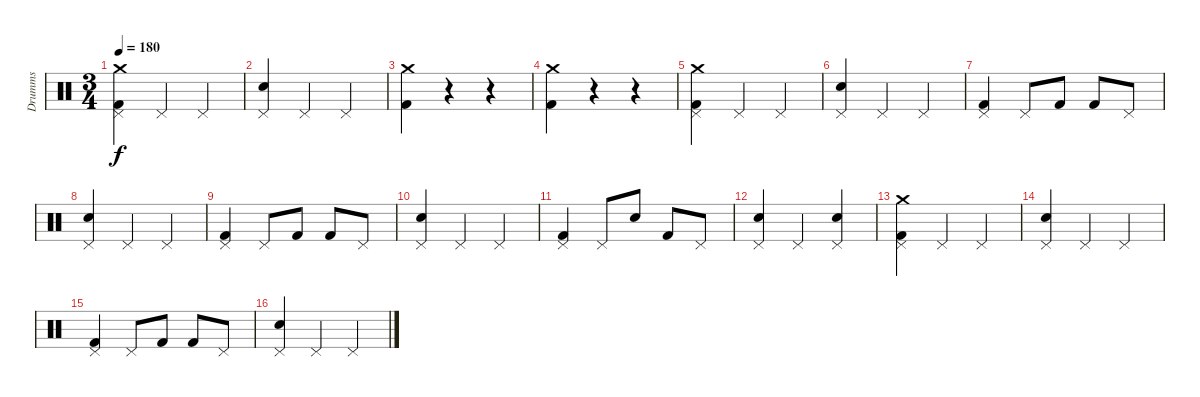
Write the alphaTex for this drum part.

\track ("Drumms" "Drumms") {instrument percussion}
\staff {score}
\articulation defaults
\ts (3 4)
\tempo 180
\clef neutral
\ks c
("Pedal Hi-Hat (hit)" "Kick (hit) 2" "Crash medium (hit)").4{dy f} "Pedal Hi-Hat (hit)".4 "Pedal Hi-Hat (hit)".4 |
("Pedal Hi-Hat (hit)" "Snare (hit) 2").4 "Pedal Hi-Hat (hit)".4 "Pedal Hi-Hat (hit)".4 |
("Kick (hit) 2" "Crash medium (hit)").4 r.4 r.4 |
("Kick (hit) 2" "Crash medium (hit)").4 r.4 r.4 |
("Pedal Hi-Hat (hit)" "Kick (hit) 2" "Crash medium (hit)").4 "Pedal Hi-Hat (hit)".4 "Pedal Hi-Hat (hit)".4 |
("Pedal Hi-Hat (hit)" "Snare (hit) 2").4 "Pedal Hi-Hat (hit)".4 "Pedal Hi-Hat (hit)".4 |
("Pedal Hi-Hat (hit)" "Kick (hit) 2").4 "Pedal Hi-Hat (hit)".8 "Kick (hit) 2".8 "Kick (hit) 2".8 "Pedal Hi-Hat (hit)".8 |
("Pedal Hi-Hat (hit)" "Snare (hit) 2").4 "Pedal Hi-Hat (hit)".4 "Pedal Hi-Hat (hit)".4 |
("Pedal Hi-Hat (hit)" "Kick (hit) 2").4 "Pedal Hi-Hat (hit)".8 "Kick (hit) 2".8 "Kick (hit) 2".8 "Pedal Hi-Hat (hit)".8 |
("Pedal Hi-Hat (hit)" "Snare (hit) 2").4 "Pedal Hi-Hat (hit)".4 "Pedal Hi-Hat (hit)".4 |
("Pedal Hi-Hat (hit)" "Kick (hit) 2").4 "Pedal Hi-Hat (hit)".8 "Snare (hit) 2".8 "Kick (hit) 2".8 "Pedal Hi-Hat (hit)".8 |
("Pedal Hi-Hat (hit)" "Snare (hit) 2").4 "Pedal Hi-Hat (hit)".4 ("Pedal Hi-Hat (hit)" "Snare (hit) 2").4 |
("Pedal Hi-Hat (hit)" "Kick (hit) 2" "Crash medium (hit)").4 "Pedal Hi-Hat (hit)".4 "Pedal Hi-Hat (hit)".4 |
("Pedal Hi-Hat (hit)" "Snare (hit) 2").4 "Pedal Hi-Hat (hit)".4 "Pedal Hi-Hat (hit)".4 |
("Pedal Hi-Hat (hit)" "Kick (hit) 2").4 "Pedal Hi-Hat (hit)".8 "Kick (hit) 2".8 "Kick (hit) 2".8 "Pedal Hi-Hat (hit)".8 |
("Pedal Hi-Hat (hit)" "Snare (hit) 2").4 "Pedal Hi-Hat (hit)".4 "Pedal Hi-Hat (hit)".4
